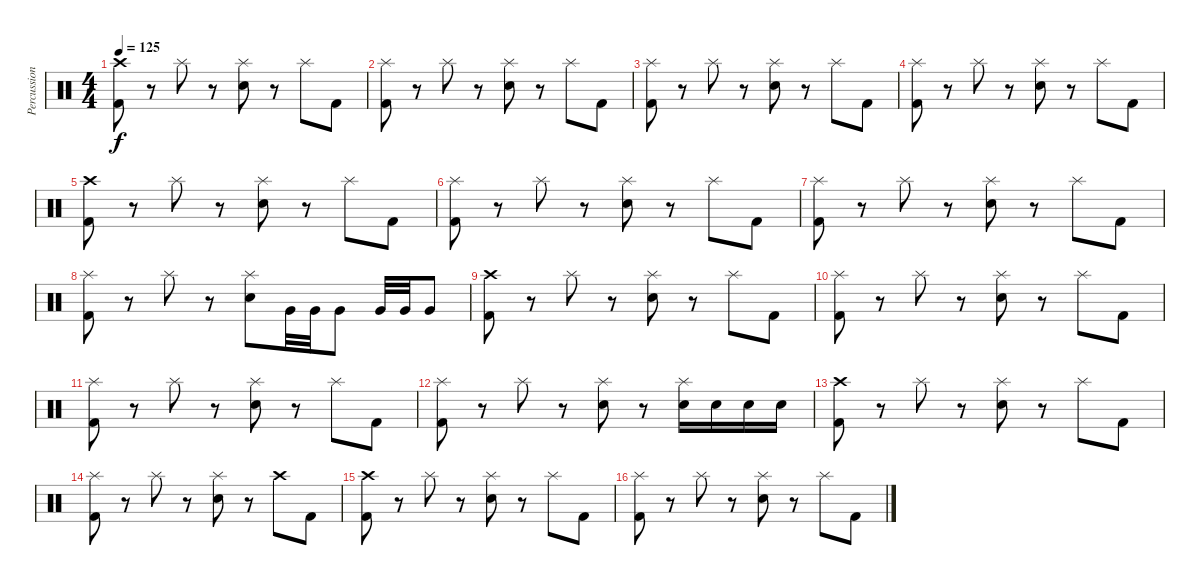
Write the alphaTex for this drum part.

\track ("Percussion" "Percussion") {instrument percussion}
\staff {score}
\articulation defaults
\ts (4 4)
\tempo 125
\clef neutral
\ks c
("Crash high (hit)" "Kick (hit) 2").8{dy f} r.8 "Splash (hit)".8 r.8 ("Splash (hit)" "Electric Snare (hit)").8 r.8 "Splash (hit)".8 "Kick (hit) 2".8 |
("Splash (hit)" "Kick (hit) 2").8 r.8 "Splash (hit)".8 r.8 ("Splash (hit)" "Electric Snare (hit)").8 r.8 "Splash (hit)".8 "Kick (hit) 2".8 |
("Splash (hit)" "Kick (hit) 2").8 r.8 "Splash (hit)".8 r.8 ("Splash (hit)" "Electric Snare (hit)").8 r.8 "Splash (hit)".8 "Kick (hit) 2".8 |
("Splash (hit)" "Kick (hit) 2").8 r.8 "Splash (hit)".8 r.8 ("Splash (hit)" "Electric Snare (hit)").8 r.8 "Splash (hit)".8 "Kick (hit) 2".8 |
("Crash high (hit)" "Kick (hit) 2").8 r.8 "Splash (hit)".8 r.8 ("Splash (hit)" "Electric Snare (hit)").8 r.8 "Splash (hit)".8 "Kick (hit) 2".8 |
("Splash (hit)" "Kick (hit) 2").8 r.8 "Splash (hit)".8 r.8 ("Splash (hit)" "Electric Snare (hit)").8 r.8 "Splash (hit)".8 "Kick (hit) 2".8 |
("Splash (hit)" "Kick (hit) 2").8 r.8 "Splash (hit)".8 r.8 ("Splash (hit)" "Electric Snare (hit)").8 r.8 "Splash (hit)".8 "Kick (hit) 2".8 |
("Splash (hit)" "Kick (hit) 2").8 r.8 "Splash (hit)".8 r.8 ("Splash (hit)" "Electric Snare (hit)").8 "Very Low Tom (hit)".32 "Very Low Tom (hit)".32 "Very Low Tom (hit)".8 "Very Low Tom (hit)".32 "Very Low Tom (hit)".32 "Very Low Tom (hit)".8 |
("Crash high (hit)" "Kick (hit) 2").8 r.8 "Splash (hit)".8 r.8 ("Splash (hit)" "Electric Snare (hit)").8 r.8 "Splash (hit)".8 "Kick (hit) 2".8 |
("Splash (hit)" "Kick (hit) 2").8 r.8 "Splash (hit)".8 r.8 ("Splash (hit)" "Electric Snare (hit)").8 r.8 "Splash (hit)".8 "Kick (hit) 2".8 |
("Splash (hit)" "Kick (hit) 2").8 r.8 "Splash (hit)".8 r.8 ("Splash (hit)" "Electric Snare (hit)").8 r.8 "Splash (hit)".8 "Kick (hit) 2".8 |
("Splash (hit)" "Kick (hit) 2").8 r.8 "Splash (hit)".8 r.8 ("Splash (hit)" "Electric Snare (hit)").8 r.8 ("Splash (hit)" "Electric Snare (hit)").16 "Electric Snare (hit)".16 "Electric Snare (hit)".16 "Electric Snare (hit)".16 |
("Crash high (hit)" "Kick (hit) 2").8 r.8 "Splash (hit)".8 r.8 ("Splash (hit)" "Electric Snare (hit)").8 r.8 "Splash (hit)".8 "Kick (hit) 2".8 |
("Splash (hit)" "Kick (hit) 2").8 r.8 "Splash (hit)".8 r.8 ("Splash (hit)" "Electric Snare (hit)").8 r.8 "Crash high (hit)".8 "Kick (hit) 2".8 |
("Crash high (hit)" "Kick (hit) 2").8 r.8 "Splash (hit)".8 r.8 ("Splash (hit)" "Electric Snare (hit)").8 r.8 "Splash (hit)".8 "Kick (hit) 2".8 |
("Splash (hit)" "Kick (hit) 2").8 r.8 "Splash (hit)".8 r.8 ("Splash (hit)" "Electric Snare (hit)").8 r.8 "Splash (hit)".8 "Kick (hit) 2".8
